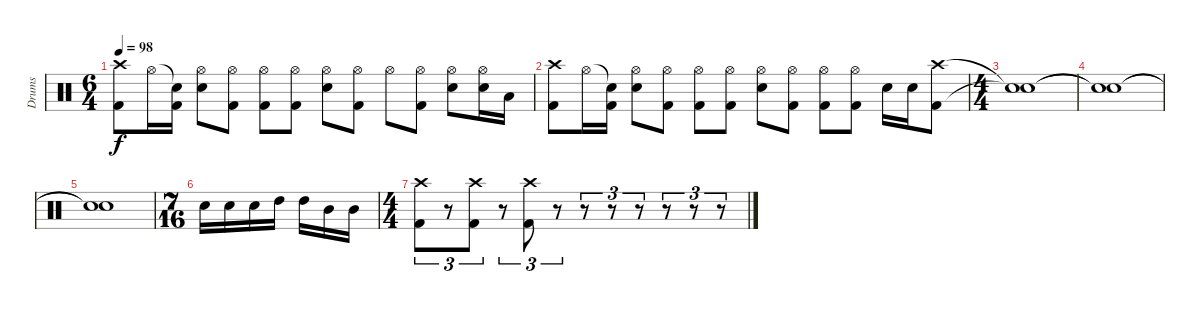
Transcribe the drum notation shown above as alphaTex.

\track ("Drums" "Drums") {instrument percussion}
\staff {score}
\articulation defaults
\ts (6 4)
\tempo 98
\clef neutral
\ks c
("Crash high (hit)" "Kick (hit) 2").8{dy f} "Hi-Hat (open)".16 ("Snare (hit)"{t} "Kick (hit) 2").16 ("Hi-Hat (open)" "Snare (hit) 2").8 ("Hi-Hat (open)" "Kick (hit) 2").8 ("Hi-Hat (open)" "Kick (hit) 2").8 ("Hi-Hat (open)" "Kick (hit) 2").8 ("Hi-Hat (open)" "Snare (hit) 2").8 ("Hi-Hat (open)" "Kick (hit) 2").8 "Hi-Hat (open)".8 ("Hi-Hat (open)" "Kick (hit) 2").8 ("Hi-Hat (open)" "Snare (hit) 2").8 ("Hi-Hat (open)" "Snare (hit) 2").16 "Low Tom (hit)".16 |
("Crash high (hit)" "Kick (hit) 2").8 "Hi-Hat (open)".16 ("Snare (hit)"{t} "Kick (hit) 2").16 ("Hi-Hat (open)" "Snare (hit) 2").8 ("Hi-Hat (open)" "Kick (hit) 2").8 ("Hi-Hat (open)" "Kick (hit) 2").8 ("Hi-Hat (open)" "Kick (hit) 2").8 ("Hi-Hat (open)" "Snare (hit) 2").8 ("Hi-Hat (open)" "Kick (hit) 2").8 ("Hi-Hat (open)" "Kick (hit) 2").8 ("Hi-Hat (open)" "Kick (hit) 2").8 "Snare (hit) 2".16 "Snare (hit) 2".16 ("Crash high (hit)" "Kick (hit) 2").8 |
\ts (4 4)
("Snare (hit)"{t} "Snare (hit)"{t}).1 |
("Snare (hit)"{t} "Snare (hit)"{t}).1 |
("Snare (hit)"{t} "Snare (hit)"{t}).1 |
\ts (7 16)
"Snare (hit) 2".16 "Snare (hit) 2".16 "Snare (hit) 2".16 "High Tom (hit)".16 "High Tom (hit)".16 "Mid Tom (hit)".16 "Mid Tom (hit)".16 |
\ts (4 4)
("Crash high (hit)" "Kick (hit) 2").8{tu (3 2)} r.8{tu (3 2)} ("Crash high (hit)" "Kick (hit) 2").8{tu (3 2)} r.8{tu (3 2)} ("Crash high (hit)" "Kick (hit) 2").8{tu (3 2)} r.8{tu (3 2)} r.8{tu (3 2)} r.8{tu (3 2)} r.8{tu (3 2)} r.8{tu (3 2)} r.8{tu (3 2)} r.8{tu (3 2)}
